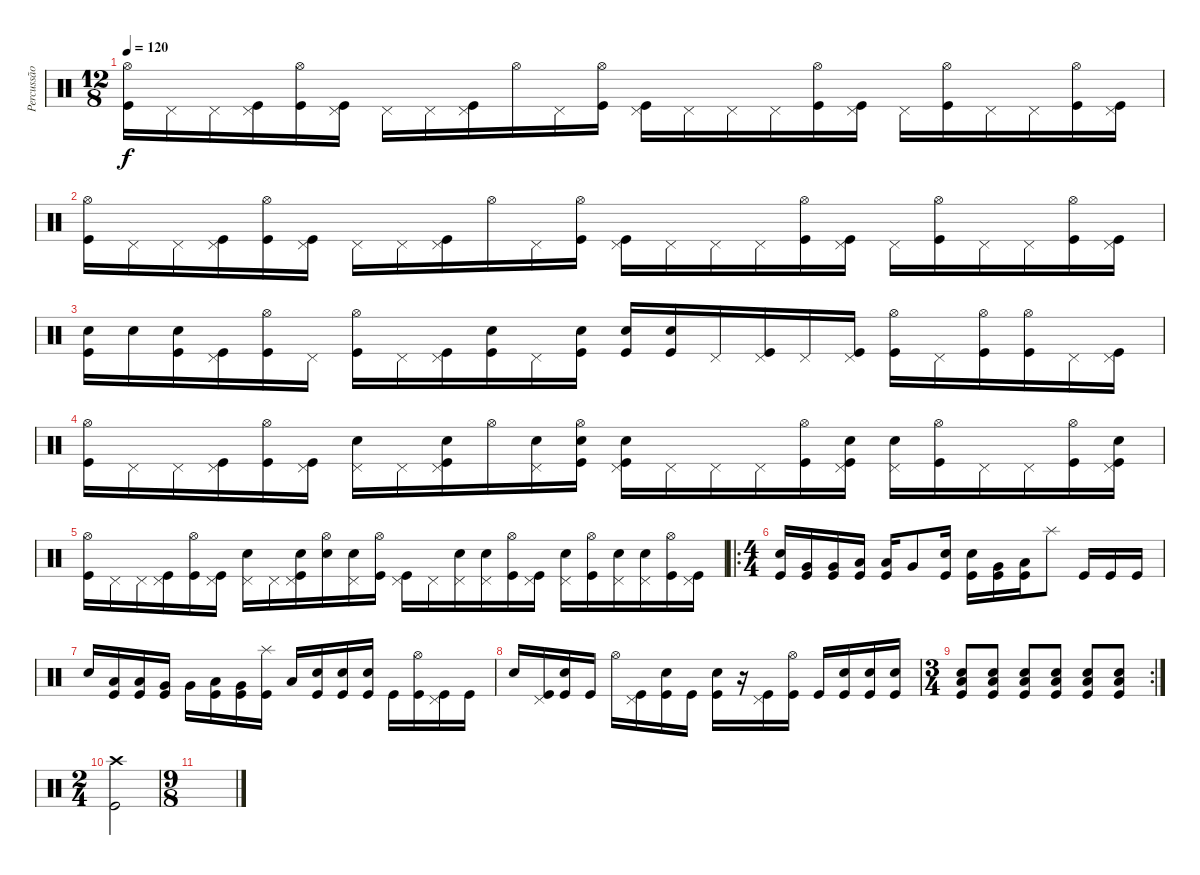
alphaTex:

\track ("Percussão" "Percussão") {instrument percussion}
\staff {score}
\articulation defaults
\ts (12 8)
\tempo 120
\clef neutral
\ks c
("Kick (hit)" "Hi-Hat (open)").16{dy f} "Pedal Hi-Hat (hit)".16 "Pedal Hi-Hat (hit)".16 ("Kick (hit)" "Pedal Hi-Hat (hit)").16 ("Kick (hit)" "Hi-Hat (open)").16 ("Kick (hit)" "Pedal Hi-Hat (hit)").16 "Pedal Hi-Hat (hit)".16 "Pedal Hi-Hat (hit)".16 ("Kick (hit)" "Pedal Hi-Hat (hit)").16 "Hi-Hat (open)".16 "Pedal Hi-Hat (hit)".16 ("Kick (hit)" "Hi-Hat (open)").16 ("Kick (hit)" "Pedal Hi-Hat (hit)").16 "Pedal Hi-Hat (hit)".16 "Pedal Hi-Hat (hit)".16 "Pedal Hi-Hat (hit)".16 ("Kick (hit)" "Hi-Hat (open)").16 ("Kick (hit)" "Pedal Hi-Hat (hit)").16 "Pedal Hi-Hat (hit)".16 ("Kick (hit)" "Hi-Hat (open)").16 "Pedal Hi-Hat (hit)".16 "Pedal Hi-Hat (hit)".16 ("Kick (hit)" "Hi-Hat (open)").16 ("Kick (hit)" "Pedal Hi-Hat (hit)").16 |
("Kick (hit)" "Hi-Hat (open)").16 "Pedal Hi-Hat (hit)".16 "Pedal Hi-Hat (hit)".16 ("Kick (hit)" "Pedal Hi-Hat (hit)").16 ("Kick (hit)" "Hi-Hat (open)").16 ("Kick (hit)" "Pedal Hi-Hat (hit)").16 "Pedal Hi-Hat (hit)".16 "Pedal Hi-Hat (hit)".16 ("Kick (hit)" "Pedal Hi-Hat (hit)").16 "Hi-Hat (open)".16 "Pedal Hi-Hat (hit)".16 ("Kick (hit)" "Hi-Hat (open)").16 ("Kick (hit)" "Pedal Hi-Hat (hit)").16 "Pedal Hi-Hat (hit)".16 "Pedal Hi-Hat (hit)".16 "Pedal Hi-Hat (hit)".16 ("Kick (hit)" "Hi-Hat (open)").16 ("Kick (hit)" "Pedal Hi-Hat (hit)").16 "Pedal Hi-Hat (hit)".16 ("Kick (hit)" "Hi-Hat (open)").16 "Pedal Hi-Hat (hit)".16 "Pedal Hi-Hat (hit)".16 ("Kick (hit)" "Hi-Hat (open)").16 ("Kick (hit)" "Pedal Hi-Hat (hit)").16 |
("Kick (hit)" "Snare (hit) 2").16 "Snare (hit) 2".16 ("Kick (hit)" "Snare (hit) 2").16 ("Kick (hit)" "Pedal Hi-Hat (hit)").16 ("Kick (hit)" "Hi-Hat (open)").16 "Pedal Hi-Hat (hit)".16 ("Kick (hit)" "Hi-Hat (open)").16 "Pedal Hi-Hat (hit)".16 ("Kick (hit)" "Pedal Hi-Hat (hit)").16 ("Kick (hit)" "Snare (hit) 2").16 "Pedal Hi-Hat (hit)".16 ("Kick (hit)" "Snare (hit) 2").16 ("Kick (hit)" "Snare (hit) 2").16 ("Kick (hit)" "Snare (hit) 2").16 "Pedal Hi-Hat (hit)".16 ("Kick (hit)" "Pedal Hi-Hat (hit)").16 "Pedal Hi-Hat (hit)".16 ("Kick (hit)" "Pedal Hi-Hat (hit)").16 ("Kick (hit)" "Hi-Hat (open)").16 "Pedal Hi-Hat (hit)".16 ("Kick (hit)" "Hi-Hat (open)").16 ("Kick (hit)" "Hi-Hat (open)").16 "Pedal Hi-Hat (hit)".16 ("Kick (hit)" "Pedal Hi-Hat (hit)").16 |
("Kick (hit)" "Hi-Hat (open)").16 "Pedal Hi-Hat (hit)".16 "Pedal Hi-Hat (hit)".16 ("Kick (hit)" "Pedal Hi-Hat (hit)").16 ("Kick (hit)" "Hi-Hat (open)").16 ("Kick (hit)" "Pedal Hi-Hat (hit)").16 ("Snare (hit) 2" "Pedal Hi-Hat (hit)").16 "Pedal Hi-Hat (hit)".16 ("Kick (hit)" "Snare (hit) 2" "Pedal Hi-Hat (hit)").16 "Hi-Hat (open)".16 ("Snare (hit) 2" "Pedal Hi-Hat (hit)").16 ("Kick (hit)" "Snare (hit) 2" "Hi-Hat (open)").16 ("Kick (hit)" "Snare (hit) 2" "Pedal Hi-Hat (hit)").16 "Pedal Hi-Hat (hit)".16 "Pedal Hi-Hat (hit)".16 "Pedal Hi-Hat (hit)".16 ("Kick (hit)" "Hi-Hat (open)").16 ("Kick (hit)" "Snare (hit) 2" "Pedal Hi-Hat (hit)").16 ("Snare (hit) 2" "Pedal Hi-Hat (hit)").16 ("Kick (hit)" "Hi-Hat (open)").16 "Pedal Hi-Hat (hit)".16 "Pedal Hi-Hat (hit)".16 ("Kick (hit)" "Hi-Hat (open)").16 ("Kick (hit)" "Snare (hit) 2" "Pedal Hi-Hat (hit)").16 |
("Kick (hit)" "Hi-Hat (open)").16 "Pedal Hi-Hat (hit)".16 "Pedal Hi-Hat (hit)".16 ("Kick (hit)" "Pedal Hi-Hat (hit)").16 ("Kick (hit)" "Hi-Hat (open)").16 ("Kick (hit)" "Pedal Hi-Hat (hit)").16 ("Snare (hit) 2" "Pedal Hi-Hat (hit)").16 "Pedal Hi-Hat (hit)".16 ("Kick (hit)" "Snare (hit) 2" "Pedal Hi-Hat (hit)").16 ("Snare (hit) 2" "Hi-Hat (open)").16 ("Snare (hit) 2" "Pedal Hi-Hat (hit)").16 ("Kick (hit)" "Hi-Hat (open)").16 ("Kick (hit)" "Pedal Hi-Hat (hit)").16 "Pedal Hi-Hat (hit)".16 ("Snare (hit) 2" "Pedal Hi-Hat (hit)").16 ("Snare (hit) 2" "Pedal Hi-Hat (hit)").16 ("Kick (hit)" "Hi-Hat (open)").16 ("Kick (hit)" "Pedal Hi-Hat (hit)").16 ("Snare (hit) 2" "Pedal Hi-Hat (hit)").16 ("Kick (hit)" "Hi-Hat (open)").16 ("Snare (hit) 2" "Pedal Hi-Hat (hit)").16 ("Snare (hit) 2" "Pedal Hi-Hat (hit)").16 ("Kick (hit)" "Hi-Hat (open)").16 ("Kick (hit)" "Pedal Hi-Hat (hit)").16 |
\ro
\ts (4 4)
("Kick (hit)" "Snare (hit) 2").16 ("Kick (hit)" "Very Low Tom (hit)").16 ("Kick (hit)" "Very Low Tom (hit)").16 ("Kick (hit)" "Low Tom (hit)").16 ("Kick (hit)" "Low Tom (hit)").16 "Very Low Tom (hit)".8 ("Kick (hit)" "Snare (hit) 2").16 ("Kick (hit)" "Snare (hit) 2").16 ("Kick (hit)" "Very Low Tom (hit)").16 ("Kick (hit)" "Low Tom (hit)").16 "Splash (hit)".8 "Kick (hit)".16 "Kick (hit)".16 "Kick (hit)".16 |
"Snare (hit) 2".16 ("Kick (hit)" "Low Tom (hit)").16 ("Kick (hit)" "Low Tom (hit)").16 ("Kick (hit)" "Very Low Tom (hit)").16 "Very Low Tom (hit)".16 ("Kick (hit)" "Low Floor Tom (hit)").16 ("Kick (hit)" "Very Low Tom (hit)").16 ("Kick (hit)" "Splash (hit)").16 "Low Tom (hit)".16 ("Kick (hit)" "Snare (hit) 2").16 ("Kick (hit)" "Snare (hit) 2").16 ("Kick (hit)" "Snare (hit) 2").16 "Kick (hit)".16 ("Kick (hit)" "Hi-Hat (open)").16 ("Kick (hit)" "Pedal Hi-Hat (hit)").16 "Kick (hit)".16 |
"Snare (hit) 2".16 ("Kick (hit)" "Pedal Hi-Hat (hit)").16 ("Kick (hit)" "Snare (hit) 2").16 "Kick (hit)".16 "Hi-Hat (open)".16 ("Kick (hit)" "Pedal Hi-Hat (hit)").16 ("Kick (hit)" "Snare (hit) 2").16 "Kick (hit)".16 ("Kick (hit)" "Snare (hit) 2").16 r.16 ("Kick (hit)" "Pedal Hi-Hat (hit)").16 ("Kick (hit)" "Hi-Hat (open)").16 "Kick (hit)".16 ("Kick (hit)" "Snare (hit) 2").16 ("Kick (hit)" "Snare (hit) 2").16 ("Kick (hit)" "Snare (hit) 2").16 |
\rc 2
\ts (3 4)
("Kick (hit)" "Low Floor Tom (hit)" "Snare (hit) 2").8 ("Kick (hit)" "Low Floor Tom (hit)" "Snare (hit) 2").8 ("Kick (hit)" "Low Floor Tom (hit)" "Snare (hit) 2").8 ("Kick (hit)" "Low Floor Tom (hit)" "Snare (hit) 2").8 ("Kick (hit)" "Low Floor Tom (hit)" "Snare (hit) 2").8 ("Kick (hit)" "Low Floor Tom (hit)" "Snare (hit) 2").8 |
\ts (2 4)
("Kick (hit)" "Crash high (hit)").2 |
\ts (9 8)
